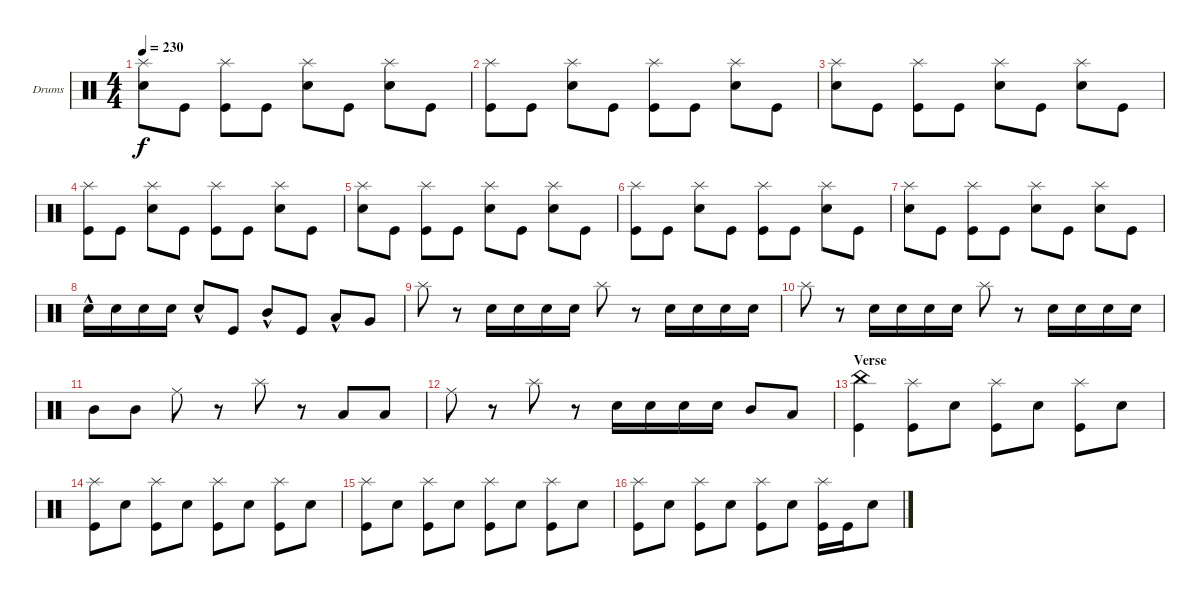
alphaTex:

\defaultSystemsLayout 4
\bracketExtendMode groupsimilarinstruments
\firstSystemTrackNameOrientation horizontal
\otherSystemsTrackNameOrientation horizontal
\track ("Drumkit" "Drums") {instrument percussion}
\staff {score}
\articulation defaults
\ts (4 4)
\tempo 230
\clef neutral
\ks c
("Splash (hit)" "Snare (hit) 2").8{dy f} "Kick (hit)".8 ("Kick (hit)" "Splash (hit)").8 "Kick (hit)".8 ("Snare (hit) 2" "Splash (hit)").8 "Kick (hit)".8 ("Snare (hit) 2" "Splash (hit)").8 "Kick (hit)".8 |
("Kick (hit)" "Splash (hit)").8 "Kick (hit)".8 ("Snare (hit) 2" "Splash (hit)").8 "Kick (hit)".8 ("Kick (hit)" "Splash (hit)").8 "Kick (hit)".8 ("Snare (hit) 2" "Splash (hit)").8 "Kick (hit)".8 |
("Splash (hit)" "Snare (hit) 2").8 "Kick (hit)".8 ("Kick (hit)" "Splash (hit)").8 "Kick (hit)".8 ("Snare (hit) 2" "Splash (hit)").8 "Kick (hit)".8 ("Snare (hit) 2" "Splash (hit)").8 "Kick (hit)".8 |
("Kick (hit)" "Splash (hit)").8 "Kick (hit)".8 ("Snare (hit) 2" "Splash (hit)").8 "Kick (hit)".8 ("Kick (hit)" "Splash (hit)").8 "Kick (hit)".8 ("Snare (hit) 2" "Splash (hit)").8 "Kick (hit)".8 |
("Splash (hit)" "Snare (hit) 2").8 "Kick (hit)".8 ("Kick (hit)" "Splash (hit)").8 "Kick (hit)".8 ("Snare (hit) 2" "Splash (hit)").8 "Kick (hit)".8 ("Snare (hit) 2" "Splash (hit)").8 "Kick (hit)".8 |
("Kick (hit)" "Splash (hit)").8 "Kick (hit)".8 ("Snare (hit) 2" "Splash (hit)").8 "Kick (hit)".8 ("Kick (hit)" "Splash (hit)").8 "Kick (hit)".8 ("Snare (hit) 2" "Splash (hit)").8 "Kick (hit)".8 |
("Splash (hit)" "Snare (hit) 2").8 "Kick (hit)".8 ("Kick (hit)" "Splash (hit)").8 "Kick (hit)".8 ("Snare (hit) 2" "Splash (hit)").8 "Kick (hit)".8 ("Snare (hit) 2" "Splash (hit)").8 "Kick (hit)".8 |
"Snare (hit) 2"{hac}.16 "Snare (hit) 2".16 "Snare (hit) 2".16 "Snare (hit) 2".16 "Snare (hit) 2"{hac}.8 "Kick (hit)".8 "Mid Tom (hit)"{hac}.8 "Kick (hit)".8 "Low Tom (hit)"{hac}.8 "Very Low Tom (hit)".8 |
"Splash (hit)".8 r.8 "Snare (hit) 2".16 "Snare (hit) 2".16 "Snare (hit) 2".16 "Snare (hit) 2".16 "Splash (hit)".8 r.8 "Snare (hit) 2".16 "Snare (hit) 2".16 "Snare (hit) 2".16 "Snare (hit) 2".16 |
"Splash (hit)".8 r.8 "Snare (hit) 2".16 "Snare (hit) 2".16 "Snare (hit) 2".16 "Snare (hit) 2".16 "Splash (hit)".8 r.8 "Snare (hit) 2".16 "Snare (hit) 2".16 "Snare (hit) 2".16 "Snare (hit) 2".16 |
"Mid Tom (hit)".8 "Mid Tom (hit)".8 "Ride (middle)".8 r.8 "Splash (hit)".8 r.8 "Low Tom (hit)".8 "Low Tom (hit)".8 |
"Ride (middle)".8 r.8 "Splash (hit)".8 r.8 "Snare (hit) 2".16 "Snare (hit) 2".16 "Snare (hit) 2".16 "Snare (hit) 2".16 "Mid Tom (hit)".8 "Low Tom (hit)".8 |
\section ("" "Verse")
("China (hit)" "Kick (hit)").4 ("Kick (hit)" "Splash (hit)").8 "Snare (hit) 2".8 ("Kick (hit)" "Splash (hit)").8 "Snare (hit) 2".8 ("Kick (hit)" "Splash (hit)").8 "Snare (hit) 2".8 |
("Kick (hit)" "Splash (hit)").8 "Snare (hit) 2".8 ("Kick (hit)" "Splash (hit)").8 "Snare (hit) 2".8 ("Kick (hit)" "Splash (hit)").8 "Snare (hit) 2".8 ("Kick (hit)" "Splash (hit)").8 "Snare (hit) 2".8 |
("Kick (hit)" "Splash (hit)").8 "Snare (hit) 2".8 ("Kick (hit)" "Splash (hit)").8 "Snare (hit) 2".8 ("Kick (hit)" "Splash (hit)").8 "Snare (hit) 2".8 ("Kick (hit)" "Splash (hit)").8 "Snare (hit) 2".8 |
("Kick (hit)" "Splash (hit)").8 "Snare (hit) 2".8 ("Kick (hit)" "Splash (hit)").8 "Snare (hit) 2".8 ("Kick (hit)" "Splash (hit)").8 "Snare (hit) 2".8 ("Kick (hit)" "Splash (hit)").16 "Kick (hit)".16 "Snare (hit) 2".8
